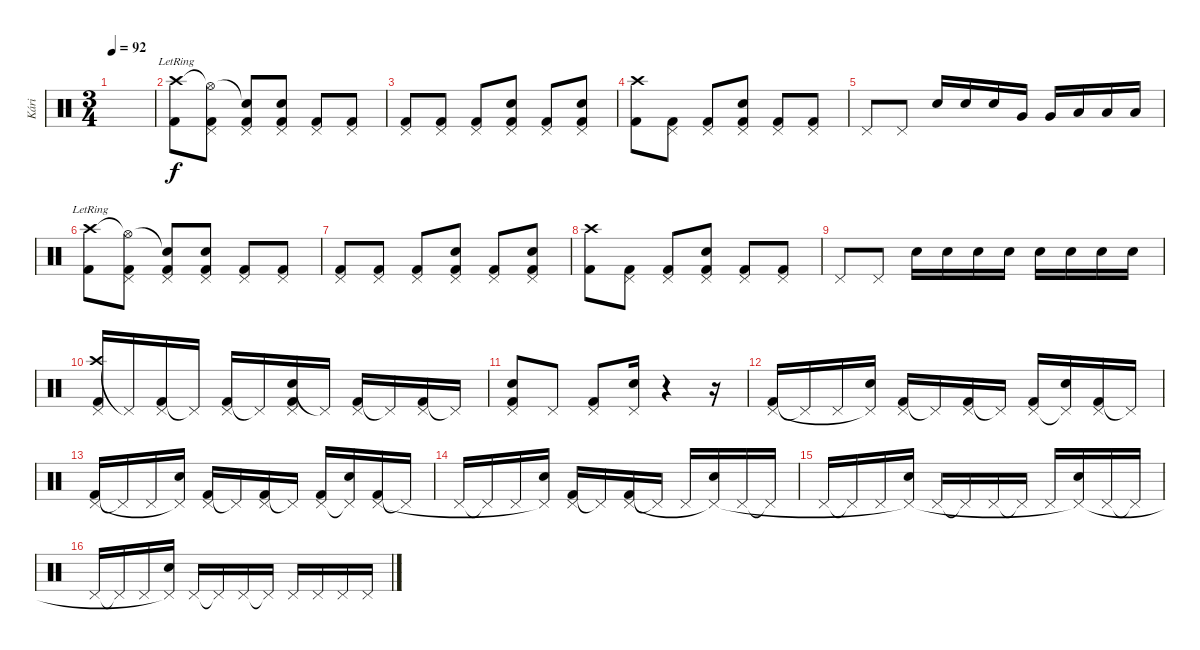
\track ("Kári" "Kári") {instrument percussion}
\staff {score}
\articulation defaults
\ts (3 4)
\tempo 92
\clef neutral
\ks c
|
("Kick (hit) 2" "Crash high (hit)"{lr}).8 ("Kick (hit) 2" "Hi-Hat (open)"{t} "Pedal Hi-Hat (hit)").8 ("Kick (hit) 2" "Snare (hit)"{t} "Pedal Hi-Hat (hit)").8 ("Kick (hit) 2" "Electric Snare (hit)" "Pedal Hi-Hat (hit)").8 ("Kick (hit) 2" "Pedal Hi-Hat (hit)").8 ("Kick (hit) 2" "Pedal Hi-Hat (hit)").8 |
("Kick (hit) 2" "Pedal Hi-Hat (hit)").8 ("Kick (hit) 2" "Pedal Hi-Hat (hit)").8 ("Kick (hit) 2" "Pedal Hi-Hat (hit)").8 ("Kick (hit) 2" "Electric Snare (hit)" "Pedal Hi-Hat (hit)").8 ("Kick (hit) 2" "Pedal Hi-Hat (hit)").8 ("Kick (hit) 2" "Electric Snare (hit)" "Pedal Hi-Hat (hit)").8 |
("Kick (hit) 2" "Crash high (hit)").8 ("Kick (hit) 2" "Pedal Hi-Hat (hit)").8 ("Kick (hit) 2" "Pedal Hi-Hat (hit)").8 ("Kick (hit) 2" "Electric Snare (hit)" "Pedal Hi-Hat (hit)").8 ("Kick (hit) 2" "Pedal Hi-Hat (hit)").8 ("Kick (hit) 2" "Pedal Hi-Hat (hit)").8 |
"Pedal Hi-Hat (hit)".8 "Pedal Hi-Hat (hit)".8 "Electric Snare (hit)".16 "Electric Snare (hit)".16 "Electric Snare (hit)".16 "Very Low Tom (hit)".16 "Very Low Tom (hit)".16 "Low Floor Tom (hit)".16 "Low Floor Tom (hit)".16 "Low Floor Tom (hit)".16 |
("Kick (hit) 2" "Crash high (hit)"{lr}).8 ("Kick (hit) 2" "Hi-Hat (open)"{t} "Pedal Hi-Hat (hit)").8 ("Kick (hit) 2" "Snare (hit)"{t} "Pedal Hi-Hat (hit)").8 ("Kick (hit) 2" "Electric Snare (hit)" "Pedal Hi-Hat (hit)").8 ("Kick (hit) 2" "Pedal Hi-Hat (hit)").8 ("Kick (hit) 2" "Pedal Hi-Hat (hit)").8 |
("Kick (hit) 2" "Pedal Hi-Hat (hit)").8 ("Kick (hit) 2" "Pedal Hi-Hat (hit)").8 ("Kick (hit) 2" "Pedal Hi-Hat (hit)").8 ("Kick (hit) 2" "Electric Snare (hit)" "Pedal Hi-Hat (hit)").8 ("Kick (hit) 2" "Pedal Hi-Hat (hit)").8 ("Kick (hit) 2" "Electric Snare (hit)" "Pedal Hi-Hat (hit)").8 |
("Kick (hit) 2" "Crash high (hit)").8 ("Kick (hit) 2" "Pedal Hi-Hat (hit)").8 ("Kick (hit) 2" "Pedal Hi-Hat (hit)").8 ("Kick (hit) 2" "Electric Snare (hit)" "Pedal Hi-Hat (hit)").8 ("Kick (hit) 2" "Pedal Hi-Hat (hit)").8 ("Kick (hit) 2" "Pedal Hi-Hat (hit)").8 |
"Pedal Hi-Hat (hit)".8 "Pedal Hi-Hat (hit)".8 "Electric Snare (hit)".16 "Electric Snare (hit)".16 "Electric Snare (hit)".16 "Electric Snare (hit)".16 "Electric Snare (hit)".16 "Electric Snare (hit)".16 "Electric Snare (hit)".16 "Electric Snare (hit)".16 |
("Crash high (hit)" "Kick (hit) 2" "Pedal Hi-Hat (hit)").16 "Pedal Hi-Hat (hit)"{t}.16 ("Kick (hit) 2" "Pedal Hi-Hat (hit)").16 "Pedal Hi-Hat (hit)"{t}.16 ("Kick (hit) 2" "Pedal Hi-Hat (hit)").16 "Pedal Hi-Hat (hit)"{t}.16 ("Electric Snare (hit)" "Kick (hit) 2" "Pedal Hi-Hat (hit)").16 "Pedal Hi-Hat (hit)"{t}.16 ("Kick (hit) 2" "Pedal Hi-Hat (hit)").16 "Pedal Hi-Hat (hit)"{t}.16 ("Kick (hit) 2" "Pedal Hi-Hat (hit)").16 "Pedal Hi-Hat (hit)"{t}.16 |
("Electric Snare (hit)" "Kick (hit) 2" "Pedal Hi-Hat (hit)").8 "Pedal Hi-Hat (hit)".8 ("Kick (hit) 2" "Pedal Hi-Hat (hit)").8 ("Electric Snare (hit)" "Pedal Hi-Hat (hit)").16 r.4 r.16 |
("Kick (hit) 2" "Pedal Hi-Hat (hit)").16 "Pedal Hi-Hat (hit)"{t}.16 "Pedal Hi-Hat (hit)".16 ("Electric Snare (hit)" "Pedal Hi-Hat (hit)"{t}).16 ("Kick (hit) 2" "Pedal Hi-Hat (hit)").16 "Pedal Hi-Hat (hit)"{t}.16 ("Kick (hit) 2" "Pedal Hi-Hat (hit)").16 "Pedal Hi-Hat (hit)"{t}.16 ("Kick (hit) 2" "Pedal Hi-Hat (hit)").16 ("Electric Snare (hit)" "Pedal Hi-Hat (hit)"{t}).16 ("Kick (hit) 2" "Pedal Hi-Hat (hit)").16 "Pedal Hi-Hat (hit)"{t}.16 |
("Kick (hit) 2" "Pedal Hi-Hat (hit)").16 "Pedal Hi-Hat (hit)"{t}.16 "Pedal Hi-Hat (hit)".16 ("Electric Snare (hit)" "Pedal Hi-Hat (hit)"{t}).16 ("Kick (hit) 2" "Pedal Hi-Hat (hit)").16 "Pedal Hi-Hat (hit)"{t}.16 ("Kick (hit) 2" "Pedal Hi-Hat (hit)").16 "Pedal Hi-Hat (hit)"{t}.16 ("Kick (hit) 2" "Pedal Hi-Hat (hit)").16 ("Electric Snare (hit)" "Pedal Hi-Hat (hit)"{t}).16 ("Kick (hit) 2" "Pedal Hi-Hat (hit)").16 "Pedal Hi-Hat (hit)"{t}.16 |
"Pedal Hi-Hat (hit)".16 "Pedal Hi-Hat (hit)"{t}.16 "Pedal Hi-Hat (hit)".16 ("Electric Snare (hit)" "Pedal Hi-Hat (hit)"{t}).16 ("Kick (hit) 2" "Pedal Hi-Hat (hit)").16 "Pedal Hi-Hat (hit)"{t}.16 ("Kick (hit) 2" "Pedal Hi-Hat (hit)").16 "Pedal Hi-Hat (hit)"{t}.16 "Pedal Hi-Hat (hit)".16 ("Electric Snare (hit)" "Pedal Hi-Hat (hit)"{t}).16 "Pedal Hi-Hat (hit)".16 "Pedal Hi-Hat (hit)"{t}.16 |
"Pedal Hi-Hat (hit)".16 "Pedal Hi-Hat (hit)"{t}.16 "Pedal Hi-Hat (hit)".16 ("Electric Snare (hit)" "Pedal Hi-Hat (hit)"{t}).16 "Pedal Hi-Hat (hit)".16 "Pedal Hi-Hat (hit)"{t}.16 "Pedal Hi-Hat (hit)".16 "Pedal Hi-Hat (hit)"{t}.16 "Pedal Hi-Hat (hit)".16 ("Electric Snare (hit)" "Pedal Hi-Hat (hit)"{t}).16 "Pedal Hi-Hat (hit)".16 "Pedal Hi-Hat (hit)"{t}.16 |
"Pedal Hi-Hat (hit)".16 "Pedal Hi-Hat (hit)"{t}.16 "Pedal Hi-Hat (hit)".16 ("Electric Snare (hit)" "Pedal Hi-Hat (hit)"{t}).16 "Pedal Hi-Hat (hit)".16 "Pedal Hi-Hat (hit)"{t}.16 "Pedal Hi-Hat (hit)".16 "Pedal Hi-Hat (hit)"{t}.16 "Pedal Hi-Hat (hit)".16 "Pedal Hi-Hat (hit)".16 "Pedal Hi-Hat (hit)".16 "Pedal Hi-Hat (hit)".16
